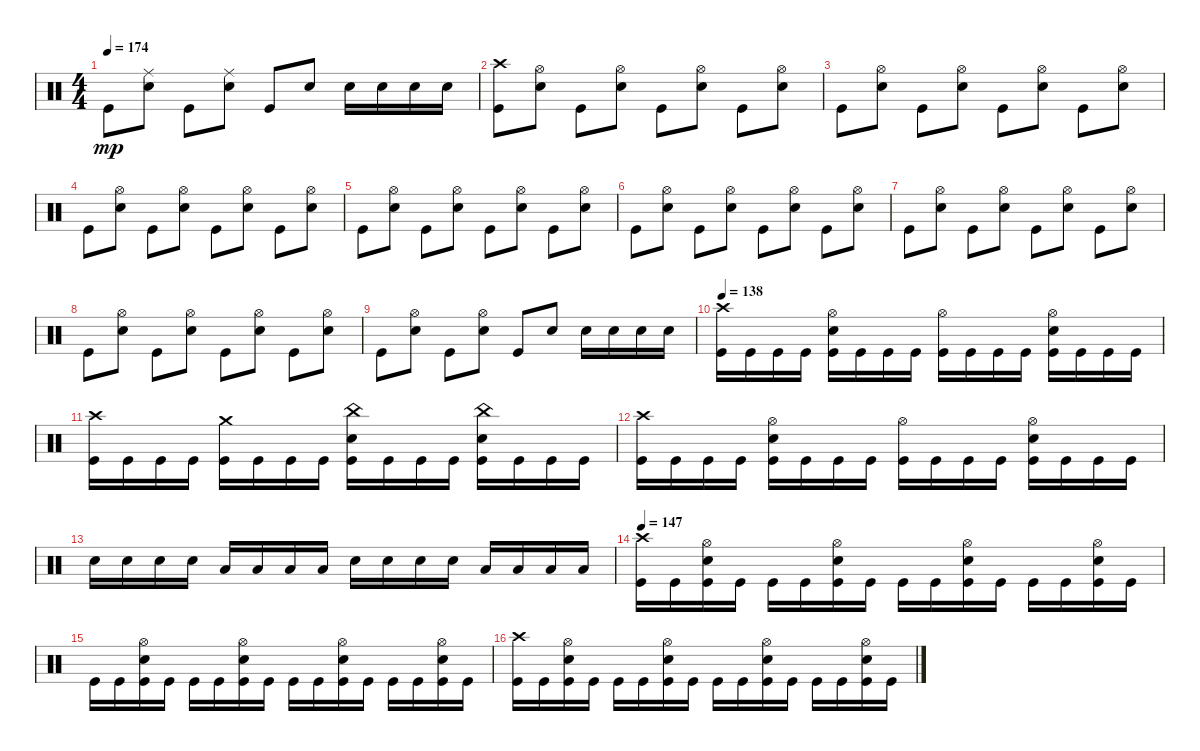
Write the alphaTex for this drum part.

\track "" {instrument percussion}
\staff {score}
\articulation defaults
\ts (4 4)
\tempo 174
\clef neutral
\ks c "Kick (hit)".8{dy mp}
("Snare (hit) 2" "Ride (middle)").8 "Kick (hit)".8 ("Snare (hit) 2" "Ride (middle)").8 "Kick (hit)".8 "Snare (hit) 2".8 "Snare (hit) 2".16 "Snare (hit) 2".16 "Snare (hit) 2".16 "Snare (hit) 2".16 |
("Kick (hit)" "Crash high (hit)").8 ("Snare (hit) 2" "Hi-Hat (open)").8 "Kick (hit)".8 ("Snare (hit) 2" "Hi-Hat (open)").8 "Kick (hit)".8 ("Snare (hit) 2" "Hi-Hat (open)").8 "Kick (hit)".8 ("Snare (hit) 2" "Hi-Hat (open)").8 |
"Kick (hit)".8 ("Snare (hit) 2" "Hi-Hat (open)").8 "Kick (hit)".8 ("Snare (hit) 2" "Hi-Hat (open)").8 "Kick (hit)".8 ("Snare (hit) 2" "Hi-Hat (open)").8 "Kick (hit)".8 ("Snare (hit) 2" "Hi-Hat (open)").8 |
"Kick (hit)".8 ("Snare (hit) 2" "Hi-Hat (open)").8 "Kick (hit)".8 ("Snare (hit) 2" "Hi-Hat (open)").8 "Kick (hit)".8 ("Snare (hit) 2" "Hi-Hat (open)").8 "Kick (hit)".8 ("Snare (hit) 2" "Hi-Hat (open)").8 |
"Kick (hit)".8 ("Snare (hit) 2" "Hi-Hat (open)").8 "Kick (hit)".8 ("Snare (hit) 2" "Hi-Hat (open)").8 "Kick (hit)".8 ("Snare (hit) 2" "Hi-Hat (open)").8 "Kick (hit)".8 ("Snare (hit) 2" "Hi-Hat (open)").8 |
"Kick (hit)".8 ("Snare (hit) 2" "Hi-Hat (open)").8 "Kick (hit)".8 ("Snare (hit) 2" "Hi-Hat (open)").8 "Kick (hit)".8 ("Snare (hit) 2" "Hi-Hat (open)").8 "Kick (hit)".8 ("Snare (hit) 2" "Hi-Hat (open)").8 |
"Kick (hit)".8 ("Snare (hit) 2" "Hi-Hat (open)").8 "Kick (hit)".8 ("Snare (hit) 2" "Hi-Hat (open)").8 "Kick (hit)".8 ("Snare (hit) 2" "Hi-Hat (open)").8 "Kick (hit)".8 ("Snare (hit) 2" "Hi-Hat (open)").8 |
"Kick (hit)".8 ("Snare (hit) 2" "Hi-Hat (open)").8 "Kick (hit)".8 ("Snare (hit) 2" "Hi-Hat (open)").8 "Kick (hit)".8 ("Snare (hit) 2" "Hi-Hat (open)").8 "Kick (hit)".8 ("Snare (hit) 2" "Hi-Hat (open)").8 |
"Kick (hit)".8 ("Snare (hit) 2" "Hi-Hat (open)").8 "Kick (hit)".8 ("Snare (hit) 2" "Hi-Hat (open)").8 "Kick (hit)".8 "Snare (hit) 2".8 "Snare (hit) 2".16 "Snare (hit) 2".16 "Snare (hit) 2".16 "Snare (hit) 2".16 |
\tempo 138
("Kick (hit)" "Crash high (hit)").16 "Kick (hit)".16 "Kick (hit)".16 "Kick (hit)".16 ("Kick (hit)" "Hi-Hat (open)" "Snare (hit) 2").16 "Kick (hit)".16 "Kick (hit)".16 "Kick (hit)".16 ("Kick (hit)" "Hi-Hat (open)").16 "Kick (hit)".16 "Kick (hit)".16 "Kick (hit)".16 ("Kick (hit)" "Snare (hit) 2" "Hi-Hat (open)").16 "Kick (hit)".16 "Kick (hit)".16 "Kick (hit)".16 |
("Kick (hit)" "Crash high (hit)").16 "Kick (hit)".16 "Kick (hit)".16 "Kick (hit)".16 ("Kick (hit)" "Crash medium (hit)").16 "Kick (hit)".16 "Kick (hit)".16 "Kick (hit)".16 ("Kick (hit)" "Snare (hit) 2" "China (hit)").16 "Kick (hit)".16 "Kick (hit)".16 "Kick (hit)".16 ("Kick (hit)" "Snare (hit) 2" "China (hit)").16 "Kick (hit)".16 "Kick (hit)".16 "Kick (hit)".16 |
("Crash high (hit)" "Kick (hit)").16 "Kick (hit)".16 "Kick (hit)".16 "Kick (hit)".16 ("Kick (hit)" "Hi-Hat (open)" "Snare (hit) 2").16 "Kick (hit)".16 "Kick (hit)".16 "Kick (hit)".16 ("Kick (hit)" "Hi-Hat (open)").16 "Kick (hit)".16 "Kick (hit)".16 "Kick (hit)".16 ("Kick (hit)" "Snare (hit) 2" "Hi-Hat (open)").16 "Kick (hit)".16 "Kick (hit)".16 "Kick (hit)".16 |
"Snare (hit) 2".16 "Snare (hit) 2".16 "Snare (hit) 2".16 "Snare (hit) 2".16 "Low Tom (hit)".16 "Low Tom (hit)".16 "Low Tom (hit)".16 "Low Tom (hit)".16 "Snare (hit) 2".16 "Snare (hit) 2".16 "Snare (hit) 2".16 "Snare (hit) 2".16 "Low Tom (hit)".16 "Low Tom (hit)".16 "Low Tom (hit)".16 "Low Tom (hit)".16 |
\tempo 147
("Kick (hit)" "Crash high (hit)").16 "Kick (hit)".16 ("Kick (hit)" "Snare (hit) 2" "Hi-Hat (open)").16 "Kick (hit)".16 "Kick (hit)".16 "Kick (hit)".16 ("Kick (hit)" "Snare (hit) 2" "Hi-Hat (open)").16 "Kick (hit)".16 "Kick (hit)".16 "Kick (hit)".16 ("Kick (hit)" "Snare (hit) 2" "Hi-Hat (open)").16 "Kick (hit)".16 "Kick (hit)".16 "Kick (hit)".16 ("Kick (hit)" "Snare (hit) 2" "Hi-Hat (open)").16 "Kick (hit)".16 |
"Kick (hit)".16 "Kick (hit)".16 ("Kick (hit)" "Snare (hit) 2" "Hi-Hat (open)").16 "Kick (hit)".16 "Kick (hit)".16 "Kick (hit)".16 ("Kick (hit)" "Snare (hit) 2" "Hi-Hat (open)").16 "Kick (hit)".16 "Kick (hit)".16 "Kick (hit)".16 ("Kick (hit)" "Snare (hit) 2" "Hi-Hat (open)").16 "Kick (hit)".16 "Kick (hit)".16 "Kick (hit)".16 ("Kick (hit)" "Snare (hit) 2" "Hi-Hat (open)").16 "Kick (hit)".16 |
("Kick (hit)" "Crash high (hit)").16 "Kick (hit)".16 ("Kick (hit)" "Snare (hit) 2" "Hi-Hat (open)").16 "Kick (hit)".16 "Kick (hit)".16 "Kick (hit)".16 ("Kick (hit)" "Snare (hit) 2" "Hi-Hat (open)").16 "Kick (hit)".16 "Kick (hit)".16 "Kick (hit)".16 ("Kick (hit)" "Snare (hit) 2" "Hi-Hat (open)").16 "Kick (hit)".16 "Kick (hit)".16 "Kick (hit)".16 ("Kick (hit)" "Snare (hit) 2" "Hi-Hat (open)").16 "Kick (hit)".16
